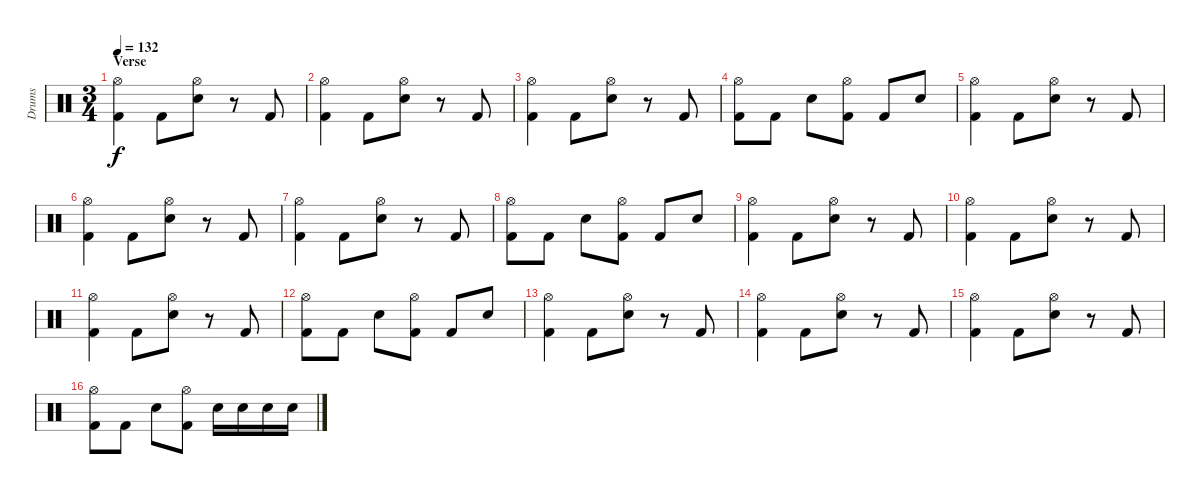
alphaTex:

\track ("Drums" "Drums") {instrument percussion}
\staff {score}
\articulation defaults
\ts (3 4)
\section ("" "Verse")
\tempo 132
\clef neutral
\ks c
("Hi-Hat (open)" "Kick (hit) 2").4{dy f} "Kick (hit) 2".8 ("Hi-Hat (open)" "Electric Snare (hit)").8 r.8 "Kick (hit) 2".8 |
("Hi-Hat (open)" "Kick (hit) 2").4 "Kick (hit) 2".8 ("Hi-Hat (open)" "Electric Snare (hit)").8 r.8 "Kick (hit) 2".8 |
("Hi-Hat (open)" "Kick (hit) 2").4 "Kick (hit) 2".8 ("Hi-Hat (open)" "Electric Snare (hit)").8 r.8 "Kick (hit) 2".8 |
("Hi-Hat (open)" "Kick (hit) 2").8 "Kick (hit) 2".8 "Electric Snare (hit)".8 ("Hi-Hat (open)" "Kick (hit) 2").8 "Kick (hit) 2".8 "Electric Snare (hit)".8 |
("Hi-Hat (open)" "Kick (hit) 2").4 "Kick (hit) 2".8 ("Hi-Hat (open)" "Electric Snare (hit)").8 r.8 "Kick (hit) 2".8 |
("Hi-Hat (open)" "Kick (hit) 2").4 "Kick (hit) 2".8 ("Hi-Hat (open)" "Electric Snare (hit)").8 r.8 "Kick (hit) 2".8 |
("Hi-Hat (open)" "Kick (hit) 2").4 "Kick (hit) 2".8 ("Hi-Hat (open)" "Electric Snare (hit)").8 r.8 "Kick (hit) 2".8 |
("Hi-Hat (open)" "Kick (hit) 2").8 "Kick (hit) 2".8 "Electric Snare (hit)".8 ("Hi-Hat (open)" "Kick (hit) 2").8 "Kick (hit) 2".8 "Electric Snare (hit)".8 |
("Hi-Hat (open)" "Kick (hit) 2").4 "Kick (hit) 2".8 ("Hi-Hat (open)" "Electric Snare (hit)").8 r.8 "Kick (hit) 2".8 |
("Hi-Hat (open)" "Kick (hit) 2").4 "Kick (hit) 2".8 ("Hi-Hat (open)" "Electric Snare (hit)").8 r.8 "Kick (hit) 2".8 |
("Hi-Hat (open)" "Kick (hit) 2").4 "Kick (hit) 2".8 ("Hi-Hat (open)" "Electric Snare (hit)").8 r.8 "Kick (hit) 2".8 |
("Hi-Hat (open)" "Kick (hit) 2").8 "Kick (hit) 2".8 "Electric Snare (hit)".8 ("Hi-Hat (open)" "Kick (hit) 2").8 "Kick (hit) 2".8 "Electric Snare (hit)".8 |
("Hi-Hat (open)" "Kick (hit) 2").4 "Kick (hit) 2".8 ("Hi-Hat (open)" "Electric Snare (hit)").8 r.8 "Kick (hit) 2".8 |
("Hi-Hat (open)" "Kick (hit) 2").4 "Kick (hit) 2".8 ("Hi-Hat (open)" "Electric Snare (hit)").8 r.8 "Kick (hit) 2".8 |
("Hi-Hat (open)" "Kick (hit) 2").4 "Kick (hit) 2".8 ("Hi-Hat (open)" "Electric Snare (hit)").8 r.8 "Kick (hit) 2".8 |
("Hi-Hat (open)" "Kick (hit) 2").8 "Kick (hit) 2".8 "Electric Snare (hit)".8 ("Hi-Hat (open)" "Kick (hit) 2").8 "Electric Snare (hit)".16 "Electric Snare (hit)".16 "Electric Snare (hit)".16 "Electric Snare (hit)".16
